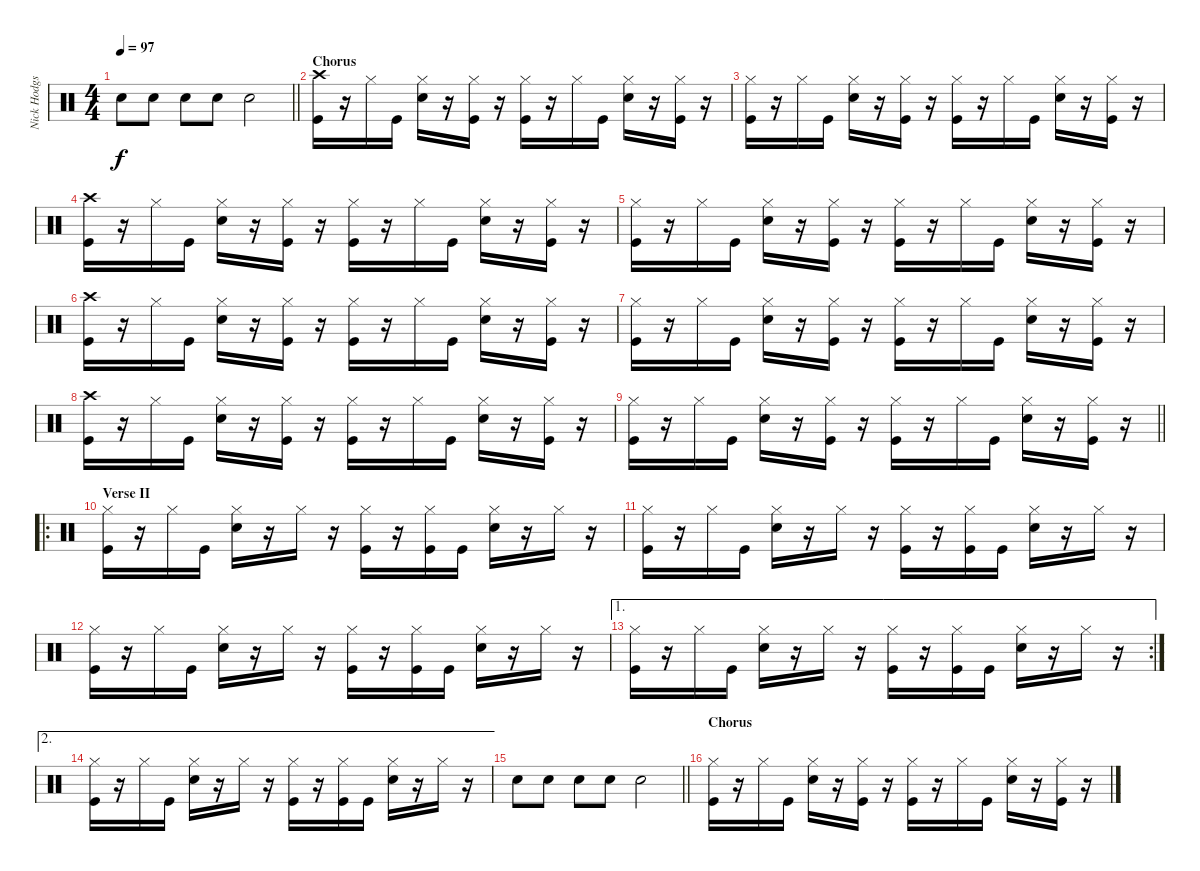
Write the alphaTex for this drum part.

\track ("Nick Hodgson's drums" "Nick Hodgs") {instrument percussion}
\staff {score}
\articulation defaults
\ts (4 4)
\tempo 97
\clef neutral
\barLineRight lightlight
\ks c "Snare (hit) 2".8{dy f} "Snare (hit) 2".8 "Snare (hit) 2".8 "Snare (hit) 2".8 "Snare (hit) 2".2
|
\section ("" "Chorus")
("Crash high (hit)" "Kick (hit)").16 r.16 "Hi-Hat (closed)".16 "Kick (hit)".16 ("Hi-Hat (closed)" "Snare (hit) 2").16 r.16 ("Hi-Hat (closed)" "Kick (hit)").16 r.16 ("Hi-Hat (closed)" "Kick (hit)").16 r.16 "Hi-Hat (closed)".16 "Kick (hit)".16 ("Hi-Hat (closed)" "Snare (hit) 2").16 r.16 ("Hi-Hat (closed)" "Kick (hit)").16 r.16 |
("Hi-Hat (closed)" "Kick (hit)").16 r.16 "Hi-Hat (closed)".16 "Kick (hit)".16 ("Hi-Hat (closed)" "Snare (hit) 2").16 r.16 ("Hi-Hat (closed)" "Kick (hit)").16 r.16 ("Hi-Hat (closed)" "Kick (hit)").16 r.16 "Hi-Hat (closed)".16 "Kick (hit)".16 ("Hi-Hat (closed)" "Snare (hit) 2").16 r.16 ("Hi-Hat (closed)" "Kick (hit)").16 r.16 |
("Crash high (hit)" "Kick (hit)").16 r.16 "Hi-Hat (closed)".16 "Kick (hit)".16 ("Hi-Hat (closed)" "Snare (hit) 2").16 r.16 ("Hi-Hat (closed)" "Kick (hit)").16 r.16 ("Hi-Hat (closed)" "Kick (hit)").16 r.16 "Hi-Hat (closed)".16 "Kick (hit)".16 ("Hi-Hat (closed)" "Snare (hit) 2").16 r.16 ("Hi-Hat (closed)" "Kick (hit)").16 r.16 |
("Hi-Hat (closed)" "Kick (hit)").16 r.16 "Hi-Hat (closed)".16 "Kick (hit)".16 ("Hi-Hat (closed)" "Snare (hit) 2").16 r.16 ("Hi-Hat (closed)" "Kick (hit)").16 r.16 ("Hi-Hat (closed)" "Kick (hit)").16 r.16 "Hi-Hat (closed)".16 "Kick (hit)".16 ("Hi-Hat (closed)" "Snare (hit) 2").16 r.16 ("Hi-Hat (closed)" "Kick (hit)").16 r.16 |
("Crash high (hit)" "Kick (hit)").16 r.16 "Hi-Hat (closed)".16 "Kick (hit)".16 ("Hi-Hat (closed)" "Snare (hit) 2").16 r.16 ("Hi-Hat (closed)" "Kick (hit)").16 r.16 ("Hi-Hat (closed)" "Kick (hit)").16 r.16 "Hi-Hat (closed)".16 "Kick (hit)".16 ("Hi-Hat (closed)" "Snare (hit) 2").16 r.16 ("Hi-Hat (closed)" "Kick (hit)").16 r.16 |
("Hi-Hat (closed)" "Kick (hit)").16 r.16 "Hi-Hat (closed)".16 "Kick (hit)".16 ("Hi-Hat (closed)" "Snare (hit) 2").16 r.16 ("Hi-Hat (closed)" "Kick (hit)").16 r.16 ("Hi-Hat (closed)" "Kick (hit)").16 r.16 "Hi-Hat (closed)".16 "Kick (hit)".16 ("Hi-Hat (closed)" "Snare (hit) 2").16 r.16 ("Hi-Hat (closed)" "Kick (hit)").16 r.16 |
("Crash high (hit)" "Kick (hit)").16 r.16 "Hi-Hat (closed)".16 "Kick (hit)".16 ("Hi-Hat (closed)" "Snare (hit) 2").16 r.16 ("Hi-Hat (closed)" "Kick (hit)").16 r.16 ("Hi-Hat (closed)" "Kick (hit)").16 r.16 "Hi-Hat (closed)".16 "Kick (hit)".16 ("Hi-Hat (closed)" "Snare (hit) 2").16 r.16 ("Hi-Hat (closed)" "Kick (hit)").16 r.16 |
\barLineRight lightlight
("Hi-Hat (closed)" "Kick (hit)").16 r.16 "Hi-Hat (closed)".16 "Kick (hit)".16 ("Hi-Hat (closed)" "Snare (hit) 2").16 r.16 ("Hi-Hat (closed)" "Kick (hit)").16 r.16 ("Hi-Hat (closed)" "Kick (hit)").16 r.16 "Hi-Hat (closed)".16 "Kick (hit)".16 ("Hi-Hat (closed)" "Snare (hit) 2").16 r.16 ("Hi-Hat (closed)" "Kick (hit)").16 r.16 |
\ro
\section ("" "Verse II")
("Hi-Hat (closed)" "Kick (hit)").16 r.16 "Hi-Hat (closed)".16 "Kick (hit)".16 ("Hi-Hat (closed)" "Snare (hit) 2").16 r.16 "Hi-Hat (closed)".16 r.16 ("Hi-Hat (closed)" "Kick (hit)").16 r.16 ("Hi-Hat (closed)" "Kick (hit)").16 "Kick (hit)".16 ("Hi-Hat (closed)" "Snare (hit) 2").16 r.16 "Hi-Hat (closed)".16 r.16 |
("Hi-Hat (closed)" "Kick (hit)").16 r.16 "Hi-Hat (closed)".16 "Kick (hit)".16 ("Hi-Hat (closed)" "Snare (hit) 2").16 r.16 "Hi-Hat (closed)".16 r.16 ("Hi-Hat (closed)" "Kick (hit)").16 r.16 ("Hi-Hat (closed)" "Kick (hit)").16 "Kick (hit)".16 ("Hi-Hat (closed)" "Snare (hit) 2").16 r.16 "Hi-Hat (closed)".16 r.16 |
("Hi-Hat (closed)" "Kick (hit)").16 r.16 "Hi-Hat (closed)".16 "Kick (hit)".16 ("Hi-Hat (closed)" "Snare (hit) 2").16 r.16 "Hi-Hat (closed)".16 r.16 ("Hi-Hat (closed)" "Kick (hit)").16 r.16 ("Hi-Hat (closed)" "Kick (hit)").16 "Kick (hit)".16 ("Hi-Hat (closed)" "Snare (hit) 2").16 r.16 "Hi-Hat (closed)".16 r.16 |
\ae 1
\rc 2
("Hi-Hat (closed)" "Kick (hit)").16 r.16 "Hi-Hat (closed)".16 "Kick (hit)".16 ("Hi-Hat (closed)" "Snare (hit) 2").16 r.16 "Hi-Hat (closed)".16 r.16 ("Hi-Hat (closed)" "Kick (hit)").16 r.16 ("Hi-Hat (closed)" "Kick (hit)").16 "Kick (hit)".16 ("Hi-Hat (closed)" "Snare (hit) 2").16 r.16 "Hi-Hat (closed)".16 r.16 |
\ae 2
("Hi-Hat (closed)" "Kick (hit)").16 r.16 "Hi-Hat (closed)".16 "Kick (hit)".16 ("Hi-Hat (closed)" "Snare (hit) 2").16 r.16 "Hi-Hat (closed)".16 r.16 ("Hi-Hat (closed)" "Kick (hit)").16 r.16 ("Hi-Hat (closed)" "Kick (hit)").16 "Kick (hit)".16 ("Hi-Hat (closed)" "Snare (hit) 2").16 r.16 "Hi-Hat (closed)".16 r.16 |
\barLineRight lightlight "Snare (hit) 2".8 "Snare (hit) 2".8 "Snare (hit) 2".8 "Snare (hit) 2".8 "Snare (hit) 2".2
|
\section ("" "Chorus")
("Hi-Hat (closed)" "Kick (hit)").16 r.16 "Hi-Hat (closed)".16 "Kick (hit)".16 ("Hi-Hat (closed)" "Snare (hit) 2").16 r.16 ("Hi-Hat (closed)" "Kick (hit)").16 r.16 ("Hi-Hat (closed)" "Kick (hit)").16 r.16 "Hi-Hat (closed)".16 "Kick (hit)".16 ("Hi-Hat (closed)" "Snare (hit) 2").16 r.16 ("Hi-Hat (closed)" "Kick (hit)").16 r.16
